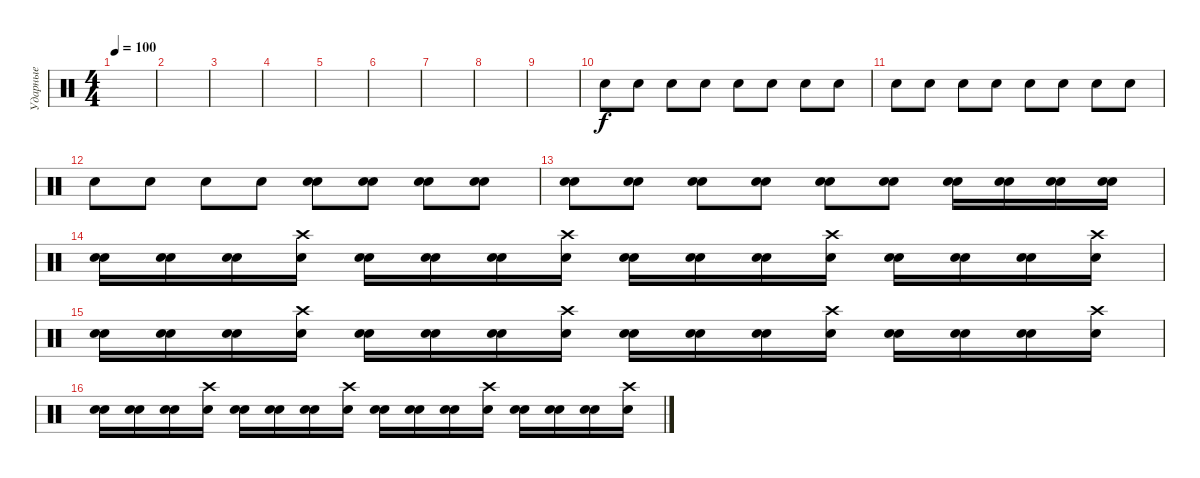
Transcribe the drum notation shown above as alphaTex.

\track ("Ударные" "Ударные") {instrument percussion}
\staff {score}
\articulation defaults
\ts (4 4)
\tempo 100
\clef neutral
\ks c
|
|
|
|
|
|
|
|
|
"Electric Snare (hit)".8 "Electric Snare (hit)".8 "Electric Snare (hit)".8 "Electric Snare (hit)".8 "Electric Snare (hit)".8 "Electric Snare (hit)".8 "Electric Snare (hit)".8 "Electric Snare (hit)".8 |
"Electric Snare (hit)".8 "Electric Snare (hit)".8 "Electric Snare (hit)".8 "Electric Snare (hit)".8 "Electric Snare (hit)".8 "Electric Snare (hit)".8 "Electric Snare (hit)".8 "Electric Snare (hit)".8 |
"Electric Snare (hit)".8 "Electric Snare (hit)".8 "Electric Snare (hit)".8 "Electric Snare (hit)".8 ("Electric Snare (hit)" "Electric Snare (hit)").8 ("Electric Snare (hit)" "Electric Snare (hit)").8 ("Electric Snare (hit)" "Electric Snare (hit)").8 ("Electric Snare (hit)" "Electric Snare (hit)").8 |
("Electric Snare (hit)" "Electric Snare (hit)").8 ("Electric Snare (hit)" "Electric Snare (hit)").8 ("Electric Snare (hit)" "Electric Snare (hit)").8 ("Electric Snare (hit)" "Electric Snare (hit)").8 ("Electric Snare (hit)" "Electric Snare (hit)").8 ("Electric Snare (hit)" "Electric Snare (hit)").8 ("Electric Snare (hit)" "Electric Snare (hit)").16 ("Electric Snare (hit)" "Electric Snare (hit)").16 ("Electric Snare (hit)" "Electric Snare (hit)").16 ("Electric Snare (hit)" "Electric Snare (hit)").16 |
("Electric Snare (hit)" "Electric Snare (hit)").16 ("Electric Snare (hit)" "Electric Snare (hit)").16 ("Electric Snare (hit)" "Electric Snare (hit)").16 ("Electric Snare (hit)" "Crash high (hit)").16 ("Electric Snare (hit)" "Electric Snare (hit)").16 ("Electric Snare (hit)" "Electric Snare (hit)").16 ("Electric Snare (hit)" "Electric Snare (hit)").16 ("Electric Snare (hit)" "Crash high (hit)").16 ("Electric Snare (hit)" "Electric Snare (hit)").16 ("Electric Snare (hit)" "Electric Snare (hit)").16 ("Electric Snare (hit)" "Electric Snare (hit)").16 ("Electric Snare (hit)" "Crash high (hit)").16 ("Electric Snare (hit)" "Electric Snare (hit)").16 ("Electric Snare (hit)" "Electric Snare (hit)").16 ("Electric Snare (hit)" "Electric Snare (hit)").16 ("Electric Snare (hit)" "Crash high (hit)").16 |
("Electric Snare (hit)" "Electric Snare (hit)").16 ("Electric Snare (hit)" "Electric Snare (hit)").16 ("Electric Snare (hit)" "Electric Snare (hit)").16 ("Electric Snare (hit)" "Crash high (hit)").16 ("Electric Snare (hit)" "Electric Snare (hit)").16 ("Electric Snare (hit)" "Electric Snare (hit)").16 ("Electric Snare (hit)" "Electric Snare (hit)").16 ("Electric Snare (hit)" "Crash high (hit)").16 ("Electric Snare (hit)" "Electric Snare (hit)").16 ("Electric Snare (hit)" "Electric Snare (hit)").16 ("Electric Snare (hit)" "Electric Snare (hit)").16 ("Electric Snare (hit)" "Crash high (hit)").16 ("Electric Snare (hit)" "Electric Snare (hit)").16 ("Electric Snare (hit)" "Electric Snare (hit)").16 ("Electric Snare (hit)" "Electric Snare (hit)").16 ("Electric Snare (hit)" "Crash high (hit)").16 |
("Electric Snare (hit)" "Electric Snare (hit)").16 ("Electric Snare (hit)" "Electric Snare (hit)").16 ("Electric Snare (hit)" "Electric Snare (hit)").16 ("Electric Snare (hit)" "Crash high (hit)").16 ("Electric Snare (hit)" "Electric Snare (hit)").16 ("Electric Snare (hit)" "Electric Snare (hit)").16 ("Electric Snare (hit)" "Electric Snare (hit)").16 ("Electric Snare (hit)" "Crash high (hit)").16 ("Electric Snare (hit)" "Electric Snare (hit)").16 ("Electric Snare (hit)" "Electric Snare (hit)").16 ("Electric Snare (hit)" "Electric Snare (hit)").16 ("Electric Snare (hit)" "Crash high (hit)").16 ("Electric Snare (hit)" "Electric Snare (hit)").16 ("Electric Snare (hit)" "Electric Snare (hit)").16 ("Electric Snare (hit)" "Electric Snare (hit)").16 ("Electric Snare (hit)" "Crash high (hit)").16
